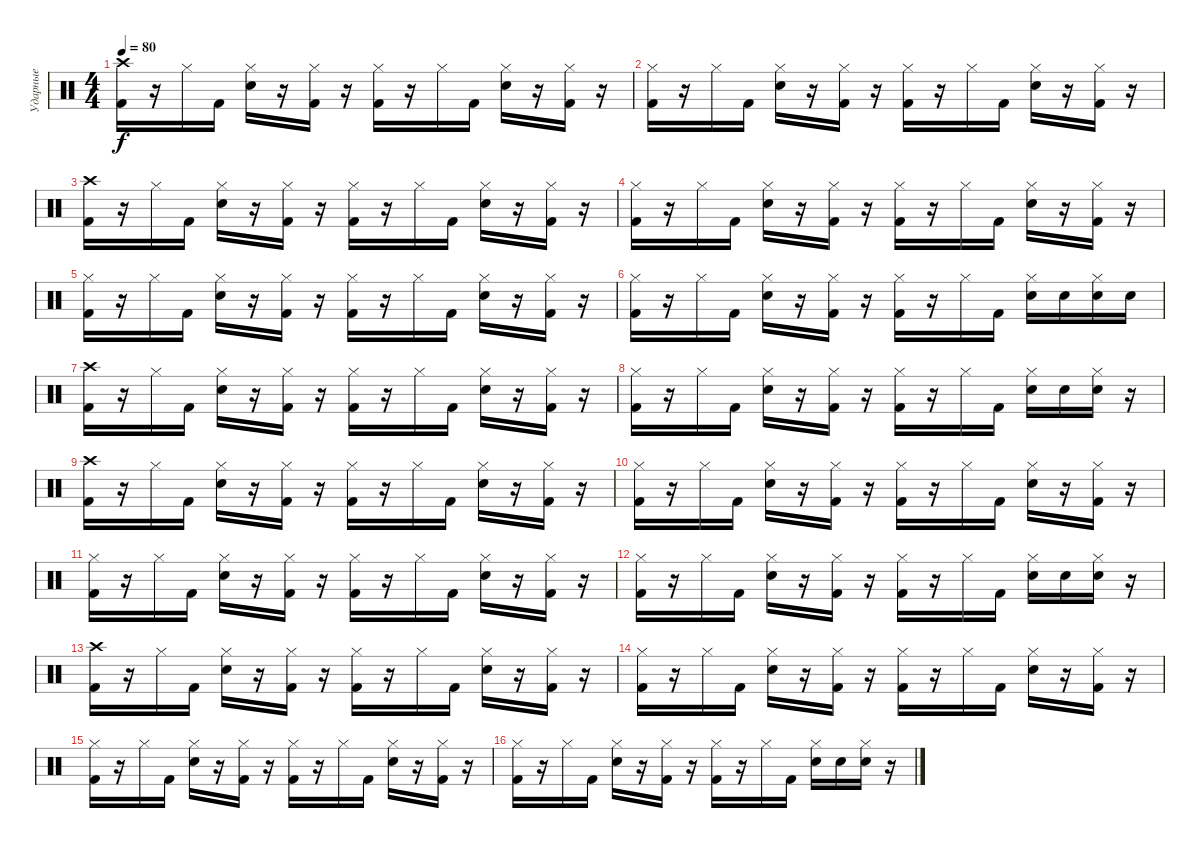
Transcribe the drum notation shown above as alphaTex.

\track ("Ударные" "Ударные") {instrument percussion}
\staff {score}
\articulation defaults
\ts (4 4)
\tempo 80
\clef neutral
\ks c
("Kick (hit) 2" "Crash high (hit)").16{dy f} r.16 "Hi-Hat (closed)".16 "Kick (hit) 2".16 ("Electric Snare (hit)" "Hi-Hat (closed)").16 r.16 ("Kick (hit) 2" "Hi-Hat (closed)").16 r.16 ("Kick (hit) 2" "Hi-Hat (closed)").16 r.16 "Hi-Hat (closed)".16 "Kick (hit) 2".16 ("Electric Snare (hit)" "Hi-Hat (closed)").16 r.16 ("Kick (hit) 2" "Hi-Hat (closed)").16 r.16 |
("Kick (hit) 2" "Hi-Hat (closed)").16 r.16 "Hi-Hat (closed)".16 "Kick (hit) 2".16 ("Electric Snare (hit)" "Hi-Hat (closed)").16 r.16 ("Kick (hit) 2" "Hi-Hat (closed)").16 r.16 ("Kick (hit) 2" "Hi-Hat (closed)").16 r.16 "Hi-Hat (closed)".16 "Kick (hit) 2".16 ("Electric Snare (hit)" "Hi-Hat (closed)").16 r.16 ("Kick (hit) 2" "Hi-Hat (closed)").16 r.16 |
("Kick (hit) 2" "Crash high (hit)").16 r.16 "Hi-Hat (closed)".16 "Kick (hit) 2".16 ("Electric Snare (hit)" "Hi-Hat (closed)").16 r.16 ("Kick (hit) 2" "Hi-Hat (closed)").16 r.16 ("Kick (hit) 2" "Hi-Hat (closed)").16 r.16 "Hi-Hat (closed)".16 "Kick (hit) 2".16 ("Electric Snare (hit)" "Hi-Hat (closed)").16 r.16 ("Kick (hit) 2" "Hi-Hat (closed)").16 r.16 |
("Kick (hit) 2" "Hi-Hat (closed)").16 r.16 "Hi-Hat (closed)".16 "Kick (hit) 2".16 ("Electric Snare (hit)" "Hi-Hat (closed)").16 r.16 ("Kick (hit) 2" "Hi-Hat (closed)").16 r.16 ("Kick (hit) 2" "Hi-Hat (closed)").16 r.16 "Hi-Hat (closed)".16 "Kick (hit) 2".16 ("Electric Snare (hit)" "Hi-Hat (closed)").16 r.16 ("Kick (hit) 2" "Hi-Hat (closed)").16 r.16 |
("Kick (hit) 2" "Hi-Hat (closed)").16 r.16 "Hi-Hat (closed)".16 "Kick (hit) 2".16 ("Electric Snare (hit)" "Hi-Hat (closed)").16 r.16 ("Kick (hit) 2" "Hi-Hat (closed)").16 r.16 ("Kick (hit) 2" "Hi-Hat (closed)").16 r.16 "Hi-Hat (closed)".16 "Kick (hit) 2".16 ("Electric Snare (hit)" "Hi-Hat (closed)").16 r.16 ("Kick (hit) 2" "Hi-Hat (closed)").16 r.16 |
("Kick (hit) 2" "Hi-Hat (closed)").16 r.16 "Hi-Hat (closed)".16 "Kick (hit) 2".16 ("Electric Snare (hit)" "Hi-Hat (closed)").16 r.16 ("Kick (hit) 2" "Hi-Hat (closed)").16 r.16 ("Kick (hit) 2" "Hi-Hat (closed)").16 r.16 "Hi-Hat (closed)".16 "Kick (hit) 2".16 ("Electric Snare (hit)" "Hi-Hat (closed)").16 "Electric Snare (hit)".16 ("Electric Snare (hit)" "Hi-Hat (closed)").16 "Electric Snare (hit)".16 |
("Kick (hit) 2" "Crash high (hit)").16 r.16 "Hi-Hat (closed)".16 "Kick (hit) 2".16 ("Electric Snare (hit)" "Hi-Hat (closed)").16 r.16 ("Kick (hit) 2" "Hi-Hat (closed)").16 r.16 ("Kick (hit) 2" "Hi-Hat (closed)").16 r.16 "Hi-Hat (closed)".16 "Kick (hit) 2".16 ("Electric Snare (hit)" "Hi-Hat (closed)").16 r.16 ("Kick (hit) 2" "Hi-Hat (closed)").16 r.16 |
("Kick (hit) 2" "Hi-Hat (closed)").16 r.16 "Hi-Hat (closed)".16 "Kick (hit) 2".16 ("Electric Snare (hit)" "Hi-Hat (closed)").16 r.16 ("Kick (hit) 2" "Hi-Hat (closed)").16 r.16 ("Kick (hit) 2" "Hi-Hat (closed)").16 r.16 "Hi-Hat (closed)".16 "Kick (hit) 2".16 ("Electric Snare (hit)" "Hi-Hat (closed)").16 "Electric Snare (hit)".16 ("Electric Snare (hit)" "Hi-Hat (closed)").16 r.16 |
("Kick (hit) 2" "Crash high (hit)").16 r.16 "Hi-Hat (closed)".16 "Kick (hit) 2".16 ("Electric Snare (hit)" "Hi-Hat (closed)").16 r.16 ("Kick (hit) 2" "Hi-Hat (closed)").16 r.16 ("Kick (hit) 2" "Hi-Hat (closed)").16 r.16 "Hi-Hat (closed)".16 "Kick (hit) 2".16 ("Electric Snare (hit)" "Hi-Hat (closed)").16 r.16 ("Kick (hit) 2" "Hi-Hat (closed)").16 r.16 |
("Kick (hit) 2" "Hi-Hat (closed)").16 r.16 "Hi-Hat (closed)".16 "Kick (hit) 2".16 ("Electric Snare (hit)" "Hi-Hat (closed)").16 r.16 ("Kick (hit) 2" "Hi-Hat (closed)").16 r.16 ("Kick (hit) 2" "Hi-Hat (closed)").16 r.16 "Hi-Hat (closed)".16 "Kick (hit) 2".16 ("Electric Snare (hit)" "Hi-Hat (closed)").16 r.16 ("Kick (hit) 2" "Hi-Hat (closed)").16 r.16 |
("Kick (hit) 2" "Hi-Hat (closed)").16 r.16 "Hi-Hat (closed)".16 "Kick (hit) 2".16 ("Electric Snare (hit)" "Hi-Hat (closed)").16 r.16 ("Kick (hit) 2" "Hi-Hat (closed)").16 r.16 ("Kick (hit) 2" "Hi-Hat (closed)").16 r.16 "Hi-Hat (closed)".16 "Kick (hit) 2".16 ("Electric Snare (hit)" "Hi-Hat (closed)").16 r.16 ("Kick (hit) 2" "Hi-Hat (closed)").16 r.16 |
("Kick (hit) 2" "Hi-Hat (closed)").16 r.16 "Hi-Hat (closed)".16 "Kick (hit) 2".16 ("Electric Snare (hit)" "Hi-Hat (closed)").16 r.16 ("Kick (hit) 2" "Hi-Hat (closed)").16 r.16 ("Kick (hit) 2" "Hi-Hat (closed)").16 r.16 "Hi-Hat (closed)".16 "Kick (hit) 2".16 ("Electric Snare (hit)" "Hi-Hat (closed)").16 "Electric Snare (hit)".16 ("Electric Snare (hit)" "Hi-Hat (closed)").16 r.16 |
("Kick (hit) 2" "Crash high (hit)").16 r.16 "Hi-Hat (closed)".16 "Kick (hit) 2".16 ("Electric Snare (hit)" "Hi-Hat (closed)").16 r.16 ("Kick (hit) 2" "Hi-Hat (closed)").16 r.16 ("Kick (hit) 2" "Hi-Hat (closed)").16 r.16 "Hi-Hat (closed)".16 "Kick (hit) 2".16 ("Electric Snare (hit)" "Hi-Hat (closed)").16 r.16 ("Kick (hit) 2" "Hi-Hat (closed)").16 r.16 |
("Kick (hit) 2" "Hi-Hat (closed)").16 r.16 "Hi-Hat (closed)".16 "Kick (hit) 2".16 ("Electric Snare (hit)" "Hi-Hat (closed)").16 r.16 ("Kick (hit) 2" "Hi-Hat (closed)").16 r.16 ("Kick (hit) 2" "Hi-Hat (closed)").16 r.16 "Hi-Hat (closed)".16 "Kick (hit) 2".16 ("Electric Snare (hit)" "Hi-Hat (closed)").16 r.16 ("Kick (hit) 2" "Hi-Hat (closed)").16 r.16 |
("Kick (hit) 2" "Hi-Hat (closed)").16 r.16 "Hi-Hat (closed)".16 "Kick (hit) 2".16 ("Electric Snare (hit)" "Hi-Hat (closed)").16 r.16 ("Kick (hit) 2" "Hi-Hat (closed)").16 r.16 ("Kick (hit) 2" "Hi-Hat (closed)").16 r.16 "Hi-Hat (closed)".16 "Kick (hit) 2".16 ("Electric Snare (hit)" "Hi-Hat (closed)").16 r.16 ("Kick (hit) 2" "Hi-Hat (closed)").16 r.16 |
("Kick (hit) 2" "Hi-Hat (closed)").16 r.16 "Hi-Hat (closed)".16 "Kick (hit) 2".16 ("Electric Snare (hit)" "Hi-Hat (closed)").16 r.16 ("Kick (hit) 2" "Hi-Hat (closed)").16 r.16 ("Kick (hit) 2" "Hi-Hat (closed)").16 r.16 "Hi-Hat (closed)".16 "Kick (hit) 2".16 ("Electric Snare (hit)" "Hi-Hat (closed)").16 "Electric Snare (hit)".16 ("Electric Snare (hit)" "Hi-Hat (closed)").16 r.16
